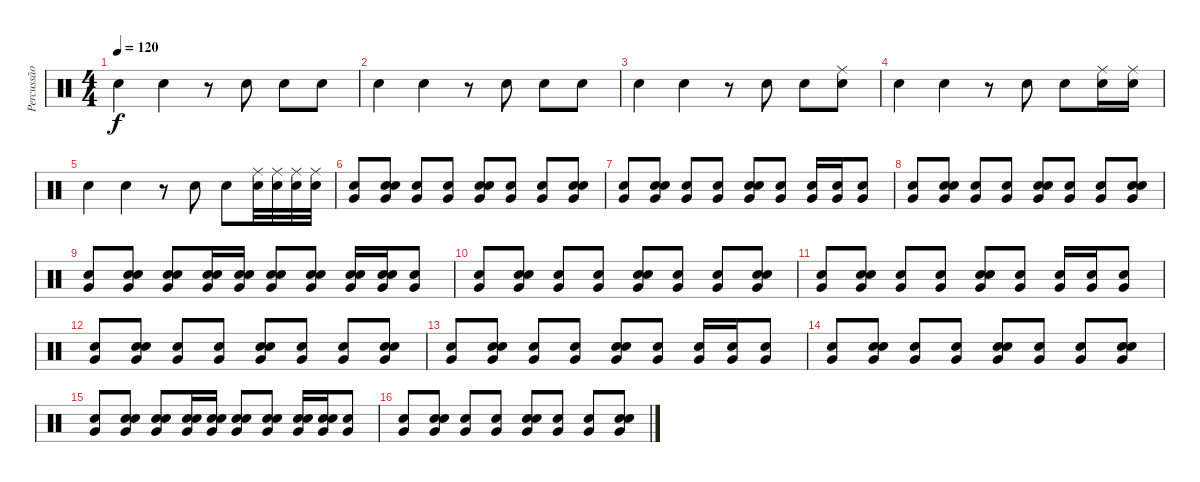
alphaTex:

\track ("Percussão" "Percussão") {instrument percussion}
\staff {score}
\articulation defaults
\ts (4 4)
\tempo 120
\clef neutral
\ks c "Snare (hit) 2".4{dy f} "Electric Snare (hit)".4
r.8 "Snare (hit) 2".8 "Snare (hit) 2".8 "Electric Snare (hit)".8 |
"Snare (hit) 2".4 "Electric Snare (hit)".4 r.8 "Snare (hit) 2".8 "Snare (hit) 2".8 "Electric Snare (hit)".8 |
"Snare (hit) 2".4 "Electric Snare (hit)".4 r.8 "Snare (hit) 2".8 "Snare (hit) 2".8 ("Ride (middle)" "Electric Snare (hit)").8 |
"Snare (hit) 2".4 "Electric Snare (hit)".4 r.8 "Snare (hit) 2".8 "Snare (hit) 2".8 ("Ride (middle)" "Electric Snare (hit)").16 ("Ride (middle)" "Electric Snare (hit)").16 |
"Snare (hit) 2".4 "Electric Snare (hit)".4 r.8 "Snare (hit) 2".8 "Snare (hit) 2".8 ("Ride (middle)" "Electric Snare (hit)").32 ("Ride (middle)" "Electric Snare (hit)").32 ("Ride (middle)" "Electric Snare (hit)").32 ("Ride (middle)" "Electric Snare (hit)").32 |
("Snare (hit) 2" "Very Low Tom (hit)").8 ("Snare (hit) 2" "Electric Snare (hit)" "Very Low Tom (hit)").8 ("Snare (hit) 2" "Very Low Tom (hit)").8 ("Snare (hit) 2" "Very Low Tom (hit)").8 ("Snare (hit) 2" "Electric Snare (hit)" "Very Low Tom (hit)").8 ("Snare (hit) 2" "Very Low Tom (hit)").8 ("Snare (hit) 2" "Very Low Tom (hit)").8 ("Snare (hit) 2" "Electric Snare (hit)" "Very Low Tom (hit)").8 |
("Very Low Tom (hit)" "Snare (hit) 2").8 ("Very Low Tom (hit)" "Snare (hit) 2" "Electric Snare (hit)").8 ("Very Low Tom (hit)" "Snare (hit) 2").8 ("Very Low Tom (hit)" "Snare (hit) 2").8 ("Very Low Tom (hit)" "Snare (hit) 2" "Electric Snare (hit)").8 ("Very Low Tom (hit)" "Snare (hit) 2").8 ("Very Low Tom (hit)" "Snare (hit) 2").16 ("Very Low Tom (hit)" "Snare (hit) 2").16 ("Very Low Tom (hit)" "Electric Snare (hit)").8 |
("Snare (hit) 2" "Very Low Tom (hit)").8 ("Snare (hit) 2" "Electric Snare (hit)" "Very Low Tom (hit)").8 ("Snare (hit) 2" "Very Low Tom (hit)").8 ("Snare (hit) 2" "Very Low Tom (hit)").8 ("Snare (hit) 2" "Electric Snare (hit)" "Very Low Tom (hit)").8 ("Snare (hit) 2" "Very Low Tom (hit)").8 ("Snare (hit) 2" "Very Low Tom (hit)").8 ("Snare (hit) 2" "Electric Snare (hit)" "Very Low Tom (hit)").8 |
("Very Low Tom (hit)" "Snare (hit) 2").8 ("Very Low Tom (hit)" "Snare (hit) 2" "Electric Snare (hit)").8 ("Very Low Tom (hit)" "Snare (hit) 2" "Electric Snare (hit)").8 ("Very Low Tom (hit)" "Snare (hit) 2" "Electric Snare (hit)").16 ("Very Low Tom (hit)" "Snare (hit) 2" "Electric Snare (hit)").16 ("Very Low Tom (hit)" "Snare (hit) 2" "Electric Snare (hit)").8 ("Very Low Tom (hit)" "Snare (hit) 2" "Electric Snare (hit)").8 ("Very Low Tom (hit)" "Snare (hit) 2" "Electric Snare (hit)").16 ("Very Low Tom (hit)" "Snare (hit) 2" "Electric Snare (hit)").16 ("Very Low Tom (hit)" "Electric Snare (hit)").8 |
("Snare (hit) 2" "Very Low Tom (hit)").8 ("Snare (hit) 2" "Electric Snare (hit)" "Very Low Tom (hit)").8 ("Snare (hit) 2" "Very Low Tom (hit)").8 ("Snare (hit) 2" "Very Low Tom (hit)").8 ("Snare (hit) 2" "Electric Snare (hit)" "Very Low Tom (hit)").8 ("Snare (hit) 2" "Very Low Tom (hit)").8 ("Snare (hit) 2" "Very Low Tom (hit)").8 ("Snare (hit) 2" "Electric Snare (hit)" "Very Low Tom (hit)").8 |
("Very Low Tom (hit)" "Snare (hit) 2").8 ("Very Low Tom (hit)" "Snare (hit) 2" "Electric Snare (hit)").8 ("Very Low Tom (hit)" "Snare (hit) 2").8 ("Very Low Tom (hit)" "Snare (hit) 2").8 ("Very Low Tom (hit)" "Snare (hit) 2" "Electric Snare (hit)").8 ("Very Low Tom (hit)" "Snare (hit) 2").8 ("Very Low Tom (hit)" "Snare (hit) 2").16 ("Very Low Tom (hit)" "Snare (hit) 2").16 ("Very Low Tom (hit)" "Electric Snare (hit)").8 |
("Snare (hit) 2" "Very Low Tom (hit)").8 ("Snare (hit) 2" "Electric Snare (hit)" "Very Low Tom (hit)").8 ("Snare (hit) 2" "Very Low Tom (hit)").8 ("Snare (hit) 2" "Very Low Tom (hit)").8 ("Snare (hit) 2" "Electric Snare (hit)" "Very Low Tom (hit)").8 ("Snare (hit) 2" "Very Low Tom (hit)").8 ("Snare (hit) 2" "Very Low Tom (hit)").8 ("Snare (hit) 2" "Electric Snare (hit)" "Very Low Tom (hit)").8 |
("Very Low Tom (hit)" "Snare (hit) 2").8 ("Very Low Tom (hit)" "Snare (hit) 2" "Electric Snare (hit)").8 ("Very Low Tom (hit)" "Snare (hit) 2").8 ("Very Low Tom (hit)" "Snare (hit) 2").8 ("Very Low Tom (hit)" "Snare (hit) 2" "Electric Snare (hit)").8 ("Very Low Tom (hit)" "Snare (hit) 2").8 ("Very Low Tom (hit)" "Snare (hit) 2").16 ("Very Low Tom (hit)" "Snare (hit) 2").16 ("Very Low Tom (hit)" "Electric Snare (hit)").8 |
("Snare (hit) 2" "Very Low Tom (hit)").8 ("Snare (hit) 2" "Electric Snare (hit)" "Very Low Tom (hit)").8 ("Snare (hit) 2" "Very Low Tom (hit)").8 ("Snare (hit) 2" "Very Low Tom (hit)").8 ("Snare (hit) 2" "Electric Snare (hit)" "Very Low Tom (hit)").8 ("Snare (hit) 2" "Very Low Tom (hit)").8 ("Snare (hit) 2" "Very Low Tom (hit)").8 ("Snare (hit) 2" "Electric Snare (hit)" "Very Low Tom (hit)").8 |
("Very Low Tom (hit)" "Snare (hit) 2").8 ("Very Low Tom (hit)" "Snare (hit) 2" "Electric Snare (hit)").8 ("Very Low Tom (hit)" "Snare (hit) 2" "Electric Snare (hit)").8 ("Very Low Tom (hit)" "Snare (hit) 2" "Electric Snare (hit)").16 ("Very Low Tom (hit)" "Snare (hit) 2" "Electric Snare (hit)").16 ("Very Low Tom (hit)" "Snare (hit) 2" "Electric Snare (hit)").8 ("Very Low Tom (hit)" "Snare (hit) 2" "Electric Snare (hit)").8 ("Very Low Tom (hit)" "Snare (hit) 2" "Electric Snare (hit)").16 ("Very Low Tom (hit)" "Snare (hit) 2" "Electric Snare (hit)").16 ("Very Low Tom (hit)" "Electric Snare (hit)").8 |
("Snare (hit) 2" "Very Low Tom (hit)").8 ("Snare (hit) 2" "Electric Snare (hit)" "Very Low Tom (hit)").8 ("Snare (hit) 2" "Very Low Tom (hit)").8 ("Snare (hit) 2" "Very Low Tom (hit)").8 ("Snare (hit) 2" "Electric Snare (hit)" "Very Low Tom (hit)").8 ("Snare (hit) 2" "Very Low Tom (hit)").8 ("Snare (hit) 2" "Very Low Tom (hit)").8 ("Snare (hit) 2" "Electric Snare (hit)" "Very Low Tom (hit)").8
